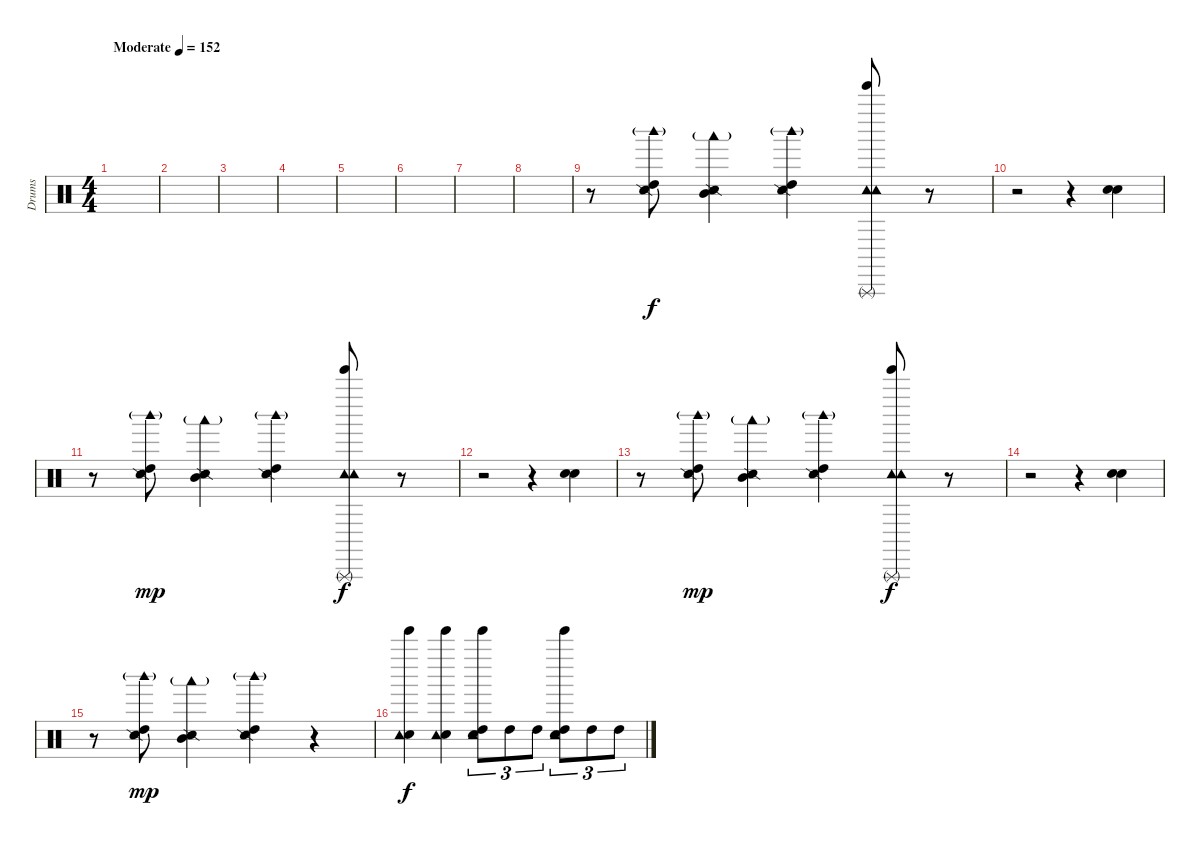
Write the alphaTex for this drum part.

\track ("Drums" "Drums") {instrument percussion}
\staff {score}
\articulation defaults
\ts (4 4)
\tempo (152 "Moderate")
\clef neutral
\ks c
|
|
|
|
|
|
|
|
r.8 ("Woodblock high (hit)"{g} "Snare (side stick) 2" "High Tom (hit)").8 ("Woodblock low (hit)"{g} "Snare (side stick) 2" "Mid Tom (hit)").4 ("Woodblock high (hit)"{g} "Snare (side stick) 2" "High Tom (hit)").4 ("Tambourine (hit)" "Tambourine (hit)" "Tinkle Bell (hit)" "Triangle (rnute)").8{dy f} r.8 |
r.2 r.4 ("Snare (hit) 2" "Electric Snare (hit)").4 |
r.8 ("Woodblock high (hit)"{g} "Snare (side stick) 2" "High Tom (hit)").8{dy mp} ("Woodblock low (hit)"{g} "Snare (side stick) 2" "Mid Tom (hit)").4 ("Woodblock high (hit)"{g} "Snare (side stick) 2" "High Tom (hit)").4 ("Tambourine (hit)" "Tambourine (hit)" "Tinkle Bell (hit)" "Triangle (rnute)").8{dy f} r.8 |
r.2 r.4 ("Snare (hit) 2" "Electric Snare (hit)").4 |
r.8 ("Woodblock high (hit)"{g} "Snare (side stick) 2" "High Tom (hit)").8{dy mp} ("Woodblock low (hit)"{g} "Snare (side stick) 2" "Mid Tom (hit)").4 ("Woodblock high (hit)"{g} "Snare (side stick) 2" "High Tom (hit)").4 ("Tambourine (hit)" "Tambourine (hit)" "Tinkle Bell (hit)" "Triangle (rnute)").8{dy f} r.8 |
r.2 r.4 ("Snare (hit) 2" "Electric Snare (hit)").4 |
r.8 ("Woodblock high (hit)"{g} "Snare (side stick) 2" "High Tom (hit)").8{dy mp} ("Woodblock low (hit)"{g} "Snare (side stick) 2" "Mid Tom (hit)").4 ("Woodblock high (hit)"{g} "Snare (side stick) 2" "High Tom (hit)").4 r.4 |
("Snare (hit) 2" "Tambourine (hit)" "Tinkle Bell (hit)").4{dy f} ("Snare (hit) 2" "Tambourine (hit)" "Tinkle Bell (hit)").4 ("High Tom (hit)" "Snare (hit) 2" "Tambourine (hit)" "Tinkle Bell (hit)").8{tu (3 2)} "High Tom (hit)".8{tu (3 2)} "High Tom (hit)".8{tu (3 2)} ("High Tom (hit)" "Snare (hit) 2" "Tambourine (hit)" "Tinkle Bell (hit)").8{tu (3 2)} "High Tom (hit)".8{tu (3 2)} "High Tom (hit)".8{tu (3 2)}
